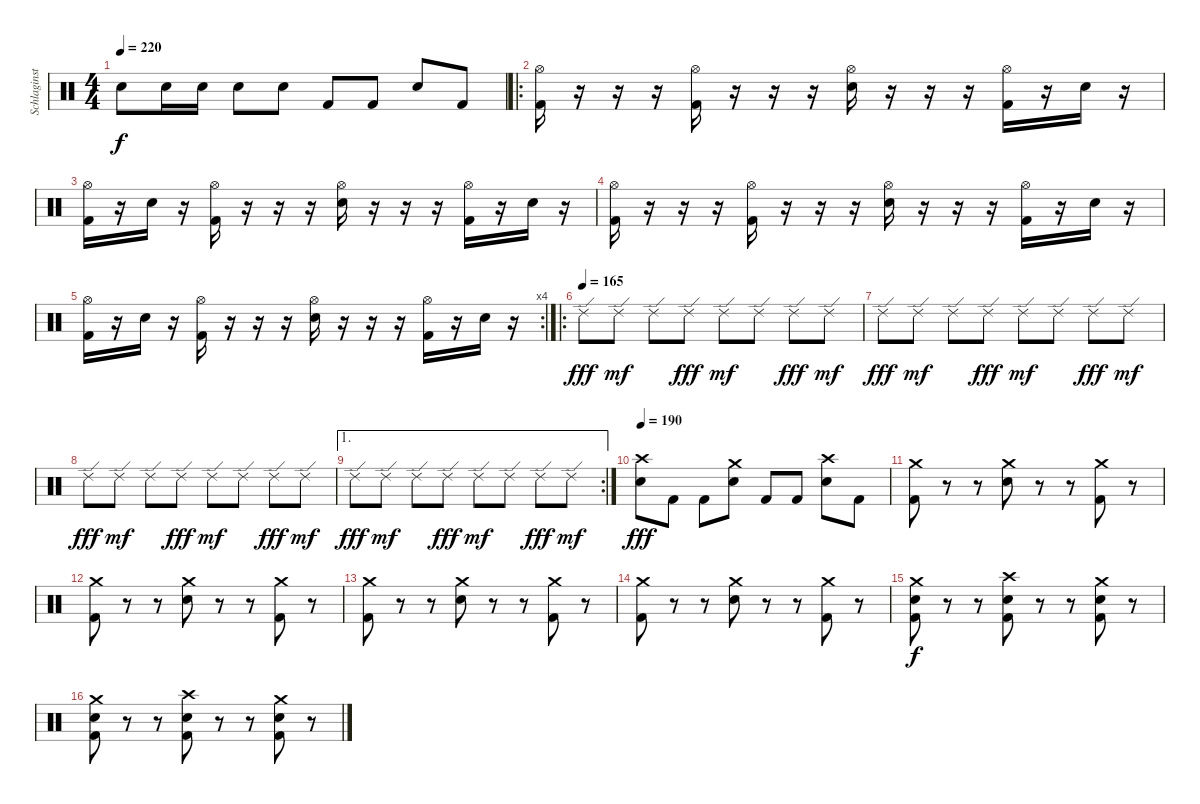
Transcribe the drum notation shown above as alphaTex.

\track ("Schlaginstrumente - Auswahl" "Schlaginst") {instrument percussion}
\staff {score}
\articulation defaults
\ts (4 4)
\tempo 220
\clef neutral
\ks c "Electric Snare (hit)".8{dy f} "Electric Snare (hit)".16 "Electric Snare (hit)".16 "Electric Snare (hit)".8 "Electric Snare (hit)".8 "Kick (hit) 2".8 "Kick (hit) 2".8 "Electric Snare (hit)".8 "Kick (hit) 2".8
|
\ro
("Hi-Hat (open)" "Kick (hit) 2").16 r.16 r.16 r.16 ("Hi-Hat (open)" "Kick (hit) 2").16 r.16 r.16 r.16 ("Hi-Hat (open)" "Electric Snare (hit)").16 r.16 r.16 r.16 ("Hi-Hat (open)" "Kick (hit) 2").16 r.16 "Electric Snare (hit)".16 r.16 |
("Hi-Hat (open)" "Kick (hit) 2").16 r.16 "Electric Snare (hit)".16 r.16 ("Hi-Hat (open)" "Kick (hit) 2").16 r.16 r.16 r.16 ("Hi-Hat (open)" "Electric Snare (hit)").16 r.16 r.16 r.16 ("Hi-Hat (open)" "Kick (hit) 2").16 r.16 "Electric Snare (hit)".16 r.16 |
("Hi-Hat (open)" "Kick (hit) 2").16 r.16 r.16 r.16 ("Hi-Hat (open)" "Kick (hit) 2").16 r.16 r.16 r.16 ("Hi-Hat (open)" "Electric Snare (hit)").16 r.16 r.16 r.16 ("Hi-Hat (open)" "Kick (hit) 2").16 r.16 "Electric Snare (hit)".16 r.16 |
\rc 4
("Hi-Hat (open)" "Kick (hit) 2").16 r.16 "Electric Snare (hit)".16 r.16 ("Hi-Hat (open)" "Kick (hit) 2").16 r.16 r.16 r.16 ("Hi-Hat (open)" "Electric Snare (hit)").16 r.16 r.16 r.16 ("Hi-Hat (open)" "Kick (hit) 2").16 r.16 "Electric Snare (hit)".16 r.16 |
\ro
\tempo (165)
"Ride (edge) 2".8{dy fff} "Ride (edge) 2".8{dy mf} "Ride (edge) 2".8 "Ride (edge) 2".8{dy fff} "Ride (edge) 2".8{dy mf} "Ride (edge) 2".8 "Ride (edge) 2".8{dy fff} "Ride (edge) 2".8{dy mf} |
"Ride (edge) 2".8{dy fff} "Ride (edge) 2".8{dy mf} "Ride (edge) 2".8 "Ride (edge) 2".8{dy fff} "Ride (edge) 2".8{dy mf} "Ride (edge) 2".8 "Ride (edge) 2".8{dy fff} "Ride (edge) 2".8{dy mf} |
"Ride (edge) 2".8{dy fff} "Ride (edge) 2".8{dy mf} "Ride (edge) 2".8 "Ride (edge) 2".8{dy fff} "Ride (edge) 2".8{dy mf} "Ride (edge) 2".8 "Ride (edge) 2".8{dy fff} "Ride (edge) 2".8{dy mf} |
\ae 1
\rc 2 "Ride (edge) 2".8{dy fff} "Ride (edge) 2".8{dy mf} "Ride (edge) 2".8 "Ride (edge) 2".8{dy fff} "Ride (edge) 2".8{dy mf} "Ride (edge) 2".8 "Ride (edge) 2".8{dy fff} "Ride (edge) 2".8{dy mf}
|
\tempo 190
("Crash high (hit)" "Electric Snare (hit)").8{dy fff} "Kick (hit) 2".8 "Kick (hit) 2".8 ("Crash medium (hit)" "Electric Snare (hit)").8 "Kick (hit) 2".8 "Kick (hit) 2".8 ("Crash high (hit)" "Electric Snare (hit)").8 "Kick (hit) 2".8 |
("Crash medium (hit)" "Kick (hit) 2").8 r.8 r.8 ("Crash medium (hit)" "Electric Snare (hit)").8 r.8 r.8 ("Crash medium (hit)" "Kick (hit) 2").8 r.8 |
("Crash medium (hit)" "Kick (hit) 2").8 r.8 r.8 ("Crash medium (hit)" "Electric Snare (hit)").8 r.8 r.8 ("Crash medium (hit)" "Kick (hit) 2").8 r.8 |
("Crash medium (hit)" "Kick (hit) 2").8 r.8 r.8 ("Crash medium (hit)" "Electric Snare (hit)").8 r.8 r.8 ("Crash medium (hit)" "Kick (hit) 2").8 r.8 |
("Crash medium (hit)" "Kick (hit) 2").8 r.8 r.8 ("Crash medium (hit)" "Electric Snare (hit)").8 r.8 r.8 ("Crash medium (hit)" "Kick (hit) 2").8 r.8 |
("Crash medium (hit)" "Electric Snare (hit)" "Kick (hit) 2").8{dy f} r.8 r.8 ("Crash high (hit)" "Electric Snare (hit)" "Kick (hit) 2").8 r.8 r.8 ("Crash medium (hit)" "Electric Snare (hit)" "Kick (hit) 2").8 r.8 |
("Crash medium (hit)" "Electric Snare (hit)" "Kick (hit) 2").8 r.8 r.8 ("Crash high (hit)" "Electric Snare (hit)" "Kick (hit) 2").8 r.8 r.8 ("Crash medium (hit)" "Electric Snare (hit)" "Kick (hit) 2").8 r.8
